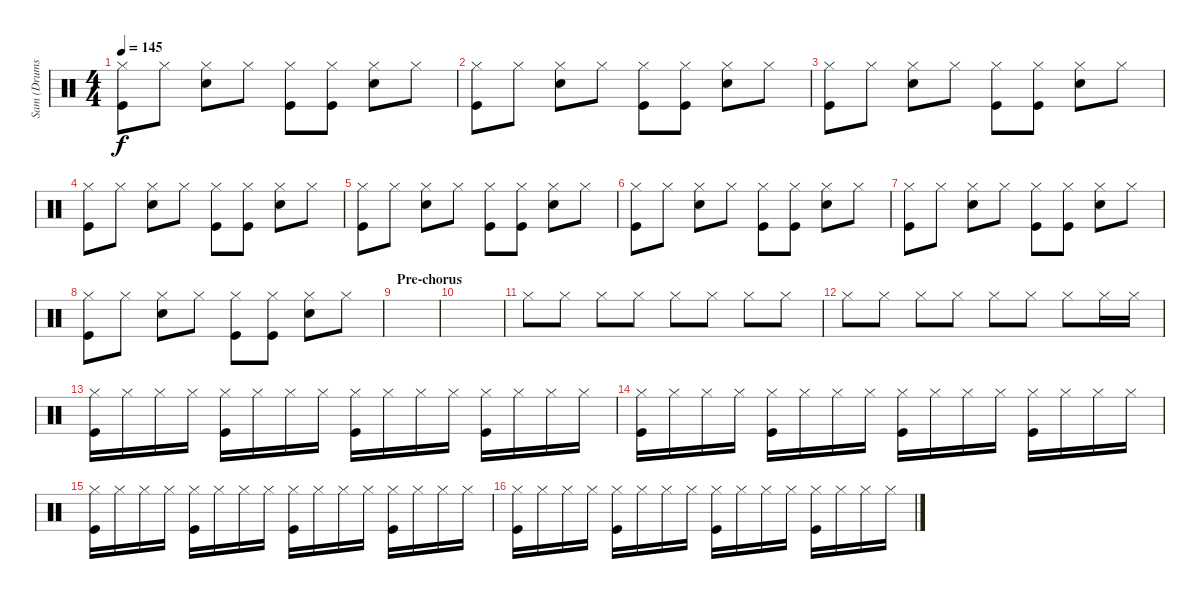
\track ("Sam (Drums)" "Sam (Drums") {instrument percussion}
\staff {score}
\articulation defaults
\ts (4 4)
\tempo 145
\clef neutral
\ks c
("Hi-Hat (closed)" "Kick (hit)").8{dy f} "Hi-Hat (closed)".8 ("Hi-Hat (closed)" "Snare (hit) 2").8 "Hi-Hat (closed)".8 ("Hi-Hat (closed)" "Kick (hit)").8 ("Hi-Hat (closed)" "Kick (hit)").8 ("Hi-Hat (closed)" "Snare (hit) 2").8 "Hi-Hat (closed)".8 |
("Hi-Hat (closed)" "Kick (hit)").8 "Hi-Hat (closed)".8 ("Hi-Hat (closed)" "Snare (hit) 2").8 "Hi-Hat (closed)".8 ("Hi-Hat (closed)" "Kick (hit)").8 ("Hi-Hat (closed)" "Kick (hit)").8 ("Hi-Hat (closed)" "Snare (hit) 2").8 "Hi-Hat (closed)".8 |
("Hi-Hat (closed)" "Kick (hit)").8 "Hi-Hat (closed)".8 ("Hi-Hat (closed)" "Snare (hit) 2").8 "Hi-Hat (closed)".8 ("Hi-Hat (closed)" "Kick (hit)").8 ("Hi-Hat (closed)" "Kick (hit)").8 ("Hi-Hat (closed)" "Snare (hit) 2").8 "Hi-Hat (closed)".8 |
("Hi-Hat (closed)" "Kick (hit)").8 "Hi-Hat (closed)".8 ("Hi-Hat (closed)" "Snare (hit) 2").8 "Hi-Hat (closed)".8 ("Hi-Hat (closed)" "Kick (hit)").8 ("Hi-Hat (closed)" "Kick (hit)").8 ("Hi-Hat (closed)" "Snare (hit) 2").8 "Hi-Hat (closed)".8 |
("Hi-Hat (closed)" "Kick (hit)").8 "Hi-Hat (closed)".8 ("Hi-Hat (closed)" "Snare (hit) 2").8 "Hi-Hat (closed)".8 ("Hi-Hat (closed)" "Kick (hit)").8 ("Hi-Hat (closed)" "Kick (hit)").8 ("Hi-Hat (closed)" "Snare (hit) 2").8 "Hi-Hat (closed)".8 |
("Hi-Hat (closed)" "Kick (hit)").8 "Hi-Hat (closed)".8 ("Hi-Hat (closed)" "Snare (hit) 2").8 "Hi-Hat (closed)".8 ("Hi-Hat (closed)" "Kick (hit)").8 ("Hi-Hat (closed)" "Kick (hit)").8 ("Hi-Hat (closed)" "Snare (hit) 2").8 "Hi-Hat (closed)".8 |
("Hi-Hat (closed)" "Kick (hit)").8 "Hi-Hat (closed)".8 ("Hi-Hat (closed)" "Snare (hit) 2").8 "Hi-Hat (closed)".8 ("Hi-Hat (closed)" "Kick (hit)").8 ("Hi-Hat (closed)" "Kick (hit)").8 ("Hi-Hat (closed)" "Snare (hit) 2").8 "Hi-Hat (closed)".8 |
("Hi-Hat (closed)" "Kick (hit)").8 "Hi-Hat (closed)".8 ("Hi-Hat (closed)" "Snare (hit) 2").8 "Hi-Hat (closed)".8 ("Hi-Hat (closed)" "Kick (hit)").8 ("Hi-Hat (closed)" "Kick (hit)").8 ("Hi-Hat (closed)" "Snare (hit) 2").8 "Hi-Hat (closed)".8 |
\section ("" "Pre-chorus")
|
|
"Hi-Hat (closed)".8 "Hi-Hat (closed)".8 "Hi-Hat (closed)".8 "Hi-Hat (closed)".8 "Hi-Hat (closed)".8 "Hi-Hat (closed)".8 "Hi-Hat (closed)".8 "Hi-Hat (closed)".8 |
"Hi-Hat (closed)".8 "Hi-Hat (closed)".8 "Hi-Hat (closed)".8 "Hi-Hat (closed)".8 "Hi-Hat (closed)".8 "Hi-Hat (closed)".8 "Hi-Hat (closed)".8 "Hi-Hat (closed)".16 "Hi-Hat (closed)".16 |
("Hi-Hat (closed)" "Kick (hit)").16 "Hi-Hat (closed)".16 "Hi-Hat (closed)".16 "Hi-Hat (closed)".16 ("Hi-Hat (closed)" "Kick (hit)").16 "Hi-Hat (closed)".16 "Hi-Hat (closed)".16 "Hi-Hat (closed)".16 ("Hi-Hat (closed)" "Kick (hit)").16 "Hi-Hat (closed)".16 "Hi-Hat (closed)".16 "Hi-Hat (closed)".16 ("Hi-Hat (closed)" "Kick (hit)").16 "Hi-Hat (closed)".16 "Hi-Hat (closed)".16 "Hi-Hat (closed)".16 |
("Hi-Hat (closed)" "Kick (hit)").16 "Hi-Hat (closed)".16 "Hi-Hat (closed)".16 "Hi-Hat (closed)".16 ("Hi-Hat (closed)" "Kick (hit)").16 "Hi-Hat (closed)".16 "Hi-Hat (closed)".16 "Hi-Hat (closed)".16 ("Hi-Hat (closed)" "Kick (hit)").16 "Hi-Hat (closed)".16 "Hi-Hat (closed)".16 "Hi-Hat (closed)".16 ("Hi-Hat (closed)" "Kick (hit)").16 "Hi-Hat (closed)".16 "Hi-Hat (closed)".16 "Hi-Hat (closed)".16 |
("Hi-Hat (closed)" "Kick (hit)").16 "Hi-Hat (closed)".16 "Hi-Hat (closed)".16 "Hi-Hat (closed)".16 ("Hi-Hat (closed)" "Kick (hit)").16 "Hi-Hat (closed)".16 "Hi-Hat (closed)".16 "Hi-Hat (closed)".16 ("Hi-Hat (closed)" "Kick (hit)").16 "Hi-Hat (closed)".16 "Hi-Hat (closed)".16 "Hi-Hat (closed)".16 ("Hi-Hat (closed)" "Kick (hit)").16 "Hi-Hat (closed)".16 "Hi-Hat (closed)".16 "Hi-Hat (closed)".16 |
("Hi-Hat (closed)" "Kick (hit)").16 "Hi-Hat (closed)".16 "Hi-Hat (closed)".16 "Hi-Hat (closed)".16 ("Hi-Hat (closed)" "Kick (hit)").16 "Hi-Hat (closed)".16 "Hi-Hat (closed)".16 "Hi-Hat (closed)".16 ("Hi-Hat (closed)" "Kick (hit)").16 "Hi-Hat (closed)".16 "Hi-Hat (closed)".16 "Hi-Hat (closed)".16 ("Hi-Hat (closed)" "Kick (hit)").16 "Hi-Hat (closed)".16 "Hi-Hat (closed)".16 "Hi-Hat (closed)".16
